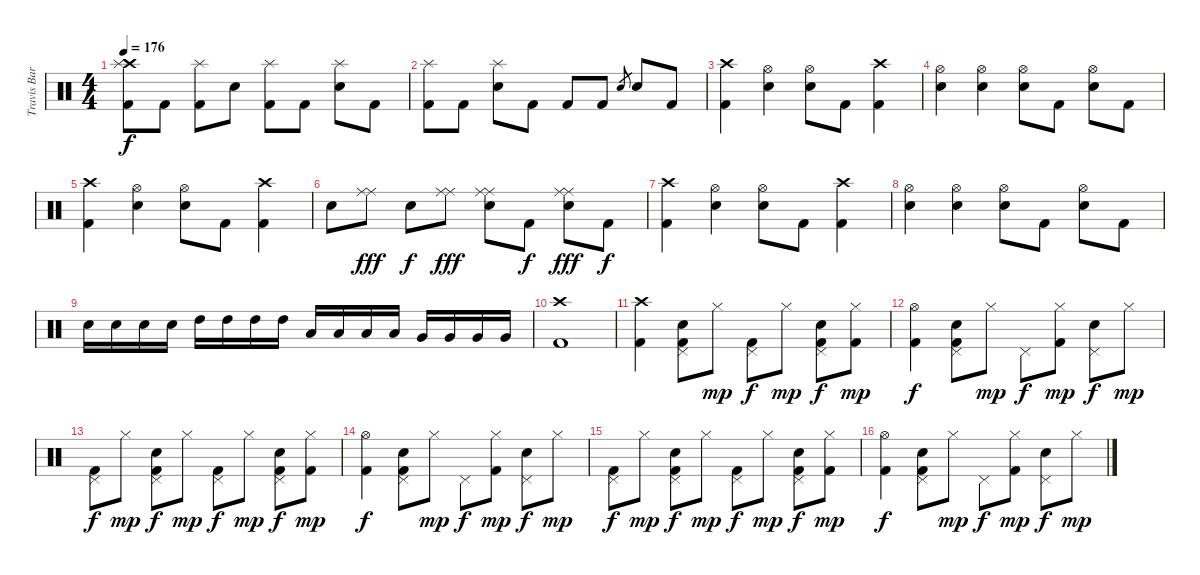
\track ("Travis Barker - Drums" "Travis Bar") {instrument percussion}
\staff {score}
\articulation defaults
\ts (4 4)
\tempo 176
\clef neutral
\ks c
("Crash high (hit)" "Splash (hit)" "Kick (hit) 2").8{dy f} "Kick (hit) 2".8 ("Splash (hit)" "Kick (hit) 2").8 "Electric Snare (hit)".8 ("Splash (hit)" "Kick (hit) 2").8 "Kick (hit) 2".8 ("Splash (hit)" "Electric Snare (hit)").8 "Kick (hit) 2".8 |
("Splash (hit)" "Kick (hit) 2").8 "Kick (hit) 2".8 ("Splash (hit)" "Electric Snare (hit)").8 "Kick (hit) 2".8 "Kick (hit) 2".8 "Kick (hit) 2".8 "Electric Snare (hit)"{sl}.8{gr} "Electric Snare (hit)".8 "Kick (hit) 2".8 |
("Crash high (hit)" "Kick (hit) 2").4 ("Hi-Hat (open)" "Electric Snare (hit)").4 ("Hi-Hat (open)" "Electric Snare (hit)").8 "Kick (hit) 2".8 ("Crash high (hit)" "Kick (hit) 2").4 |
("Hi-Hat (open)" "Electric Snare (hit)").4 ("Hi-Hat (open)" "Electric Snare (hit)").4 ("Hi-Hat (open)" "Electric Snare (hit)").8 "Kick (hit) 2".8 ("Hi-Hat (open)" "Electric Snare (hit)").8 "Kick (hit) 2".8 |
("Crash high (hit)" "Kick (hit) 2").4 ("Hi-Hat (open)" "Electric Snare (hit)").4 ("Hi-Hat (open)" "Electric Snare (hit)").8 "Kick (hit) 2".8 ("Crash high (hit)" "Kick (hit) 2").4 |
"Electric Snare (hit)".8 ("Ride (middle)" "Ride (middle)").8{dy fff} "Electric Snare (hit)".8{dy f} ("Ride (middle)" "Ride (middle)").8{dy fff} ("Ride (middle)" "Ride (middle)" "Electric Snare (hit)").8 "Kick (hit) 2".8{dy f} ("Ride (middle)" "Ride (middle)" "Electric Snare (hit)").8{dy fff} "Kick (hit) 2".8{dy f} |
("Crash high (hit)" "Kick (hit) 2").4 ("Hi-Hat (open)" "Electric Snare (hit)").4 ("Hi-Hat (open)" "Electric Snare (hit)").8 "Kick (hit) 2".8 ("Crash high (hit)" "Kick (hit) 2").4 |
("Hi-Hat (open)" "Electric Snare (hit)").4 ("Hi-Hat (open)" "Electric Snare (hit)").4 ("Hi-Hat (open)" "Electric Snare (hit)").8 "Kick (hit) 2".8 ("Hi-Hat (open)" "Electric Snare (hit)").8 "Kick (hit) 2".8 |
"Electric Snare (hit)".16 "Electric Snare (hit)".16 "Electric Snare (hit)".16 "Electric Snare (hit)".16 "High Tom (hit)".16 "High Tom (hit)".16 "High Tom (hit)".16 "High Tom (hit)".16 "Low Floor Tom (hit)".16 "Low Floor Tom (hit)".16 "Low Floor Tom (hit)".16 "Low Floor Tom (hit)".16 "Very Low Tom (hit)".16 "Very Low Tom (hit)".16 "Very Low Tom (hit)".16 "Very Low Tom (hit)".16 |
("Crash high (hit)" "Kick (hit) 2").1 |
("Crash high (hit)" "Kick (hit) 2").4 ("Pedal Hi-Hat (hit)" "Electric Snare (hit)" "Kick (hit) 2").8 "Hi-Hat (closed)".8{dy mp} ("Pedal Hi-Hat (hit)" "Kick (hit) 2").8{dy f} "Hi-Hat (closed)".8{dy mp} ("Pedal Hi-Hat (hit)" "Electric Snare (hit)" "Kick (hit) 2").8{dy f} ("Hi-Hat (closed)" "Kick (hit) 2").8{dy mp} |
("Hi-Hat (open)" "Kick (hit) 2").4{dy f} ("Pedal Hi-Hat (hit)" "Electric Snare (hit)" "Kick (hit) 2").8 "Hi-Hat (closed)".8{dy mp} "Pedal Hi-Hat (hit)".8{dy f} ("Hi-Hat (closed)" "Kick (hit) 2").8{dy mp} ("Pedal Hi-Hat (hit)" "Electric Snare (hit)").8{dy f} "Hi-Hat (closed)".8{dy mp} |
("Pedal Hi-Hat (hit)" "Kick (hit) 2").8{dy f} "Hi-Hat (closed)".8{dy mp} ("Pedal Hi-Hat (hit)" "Electric Snare (hit)" "Kick (hit) 2").8{dy f} "Hi-Hat (closed)".8{dy mp} ("Pedal Hi-Hat (hit)" "Kick (hit) 2").8{dy f} "Hi-Hat (closed)".8{dy mp} ("Pedal Hi-Hat (hit)" "Electric Snare (hit)" "Kick (hit) 2").8{dy f} ("Hi-Hat (closed)" "Kick (hit) 2").8{dy mp} |
("Hi-Hat (open)" "Kick (hit) 2").4{dy f} ("Pedal Hi-Hat (hit)" "Electric Snare (hit)" "Kick (hit) 2").8 "Hi-Hat (closed)".8{dy mp} "Pedal Hi-Hat (hit)".8{dy f} ("Hi-Hat (closed)" "Kick (hit) 2").8{dy mp} ("Pedal Hi-Hat (hit)" "Electric Snare (hit)").8{dy f} "Hi-Hat (closed)".8{dy mp} |
("Pedal Hi-Hat (hit)" "Kick (hit) 2").8{dy f} "Hi-Hat (closed)".8{dy mp} ("Pedal Hi-Hat (hit)" "Electric Snare (hit)" "Kick (hit) 2").8{dy f} "Hi-Hat (closed)".8{dy mp} ("Pedal Hi-Hat (hit)" "Kick (hit) 2").8{dy f} "Hi-Hat (closed)".8{dy mp} ("Pedal Hi-Hat (hit)" "Electric Snare (hit)" "Kick (hit) 2").8{dy f} ("Hi-Hat (closed)" "Kick (hit) 2").8{dy mp} |
("Hi-Hat (open)" "Kick (hit) 2").4{dy f} ("Pedal Hi-Hat (hit)" "Electric Snare (hit)" "Kick (hit) 2").8 "Hi-Hat (closed)".8{dy mp} "Pedal Hi-Hat (hit)".8{dy f} ("Hi-Hat (closed)" "Kick (hit) 2").8{dy mp} ("Pedal Hi-Hat (hit)" "Electric Snare (hit)").8{dy f} "Hi-Hat (closed)".8{dy mp}
